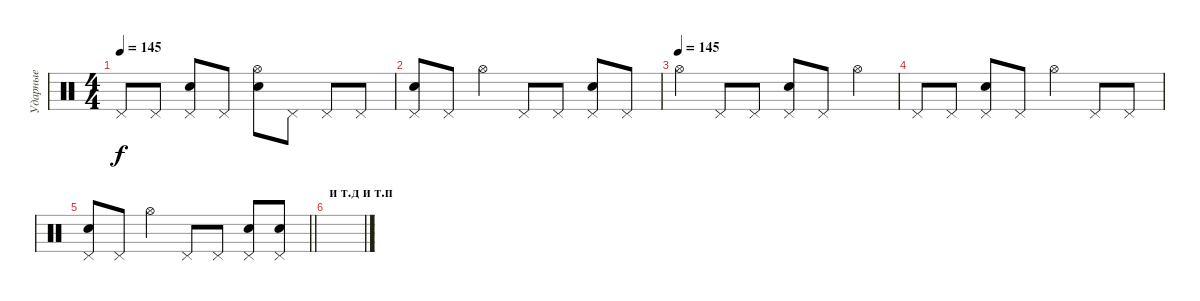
\track ("Ударные" "Ударные") {instrument percussion}
\staff {score}
\articulation defaults
\ts (4 4)
\tempo 145
\clef neutral
\ks c "Pedal Hi-Hat (hit)".8{dy f} "Pedal Hi-Hat (hit)".8
("Pedal Hi-Hat (hit)" "Electric Snare (hit)").8 "Pedal Hi-Hat (hit)".8 ("Hi-Hat (open)" "Electric Snare (hit)").8 "Pedal Hi-Hat (hit)".8 "Pedal Hi-Hat (hit)".8 "Pedal Hi-Hat (hit)".8 |
("Pedal Hi-Hat (hit)" "Electric Snare (hit)").8 "Pedal Hi-Hat (hit)".8 "Hi-Hat (open)".4 "Pedal Hi-Hat (hit)".8 "Pedal Hi-Hat (hit)".8 ("Pedal Hi-Hat (hit)" "Electric Snare (hit)").8 "Pedal Hi-Hat (hit)".8 |
\tempo (145)
"Hi-Hat (open)".4 "Pedal Hi-Hat (hit)".8 "Pedal Hi-Hat (hit)".8 ("Pedal Hi-Hat (hit)" "Electric Snare (hit)").8 "Pedal Hi-Hat (hit)".8 "Hi-Hat (open)".4 |
"Pedal Hi-Hat (hit)".8 "Pedal Hi-Hat (hit)".8 ("Pedal Hi-Hat (hit)" "Electric Snare (hit)").8 "Pedal Hi-Hat (hit)".8 "Hi-Hat (open)".4 "Pedal Hi-Hat (hit)".8 "Pedal Hi-Hat (hit)".8 |
\barLineRight lightlight
("Pedal Hi-Hat (hit)" "Electric Snare (hit)").8 "Pedal Hi-Hat (hit)".8 "Hi-Hat (open)".4 "Pedal Hi-Hat (hit)".8 "Pedal Hi-Hat (hit)".8 ("Pedal Hi-Hat (hit)" "Snare (hit) 2").8 ("Pedal Hi-Hat (hit)" "Electric Snare (hit)").8 |
\section ("" "и т.д и т.п")
